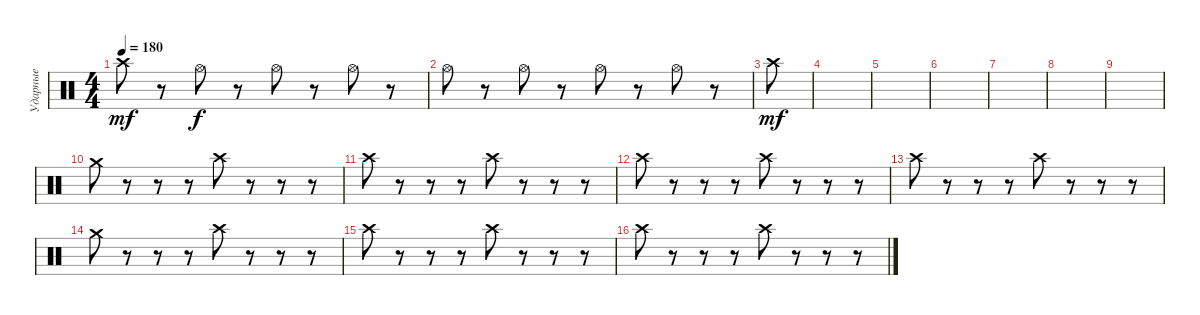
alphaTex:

\track ("Ударные" "Ударные") {instrument percussion}
\staff {score}
\articulation defaults
\ts (4 4)
\tempo 180
\clef neutral
\ks c "Crash high (hit)".8{dy mf}
r.8 "Hi-Hat (open)".8{dy f} r.8 "Hi-Hat (open)".8 r.8 "Hi-Hat (open)".8 r.8 |
"Hi-Hat (open)".8 r.8 "Hi-Hat (open)".8 r.8 "Hi-Hat (open)".8 r.8 "Hi-Hat (open)".8 r.8 |
"Crash high (hit)".8{dy mf} |
|
|
|
|
|
|
"Crash medium (hit)".8 r.8 r.8 r.8 "Crash high (hit)".8 r.8 r.8 r.8 |
"Crash high (hit)".8 r.8 r.8 r.8 "Crash high (hit)".8 r.8 r.8 r.8 |
"Crash high (hit)".8 r.8 r.8 r.8 "Crash high (hit)".8 r.8 r.8 r.8 |
"Crash high (hit)".8 r.8 r.8 r.8 "Crash high (hit)".8 r.8 r.8 r.8 |
"Crash medium (hit)".8 r.8 r.8 r.8 "Crash high (hit)".8 r.8 r.8 r.8 |
"Crash high (hit)".8 r.8 r.8 r.8 "Crash high (hit)".8 r.8 r.8 r.8 |
"Crash high (hit)".8 r.8 r.8 r.8 "Crash high (hit)".8 r.8 r.8 r.8
